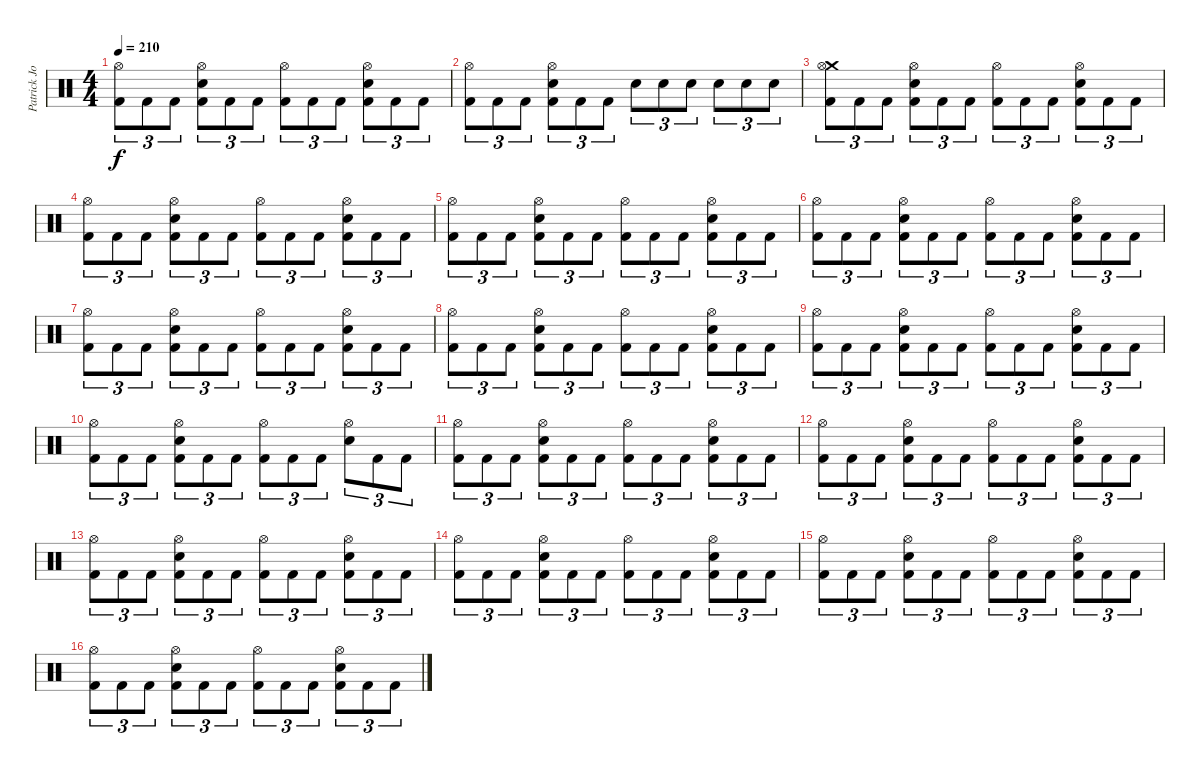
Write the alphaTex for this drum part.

\track ("Patrick Johansson" "Patrick Jo") {instrument percussion}
\staff {score}
\articulation defaults
\ts (4 4)
\tempo 210
\clef neutral
\ks c
("Hi-Hat (open)" "Kick (hit) 2").8{tu (3 2) dy f} "Kick (hit) 2".8{tu (3 2)} "Kick (hit) 2".8{tu (3 2)} ("Hi-Hat (open)" "Snare (hit) 2" "Kick (hit) 2").8{tu (3 2)} "Kick (hit) 2".8{tu (3 2)} "Kick (hit) 2".8{tu (3 2)} ("Hi-Hat (open)" "Kick (hit) 2").8{tu (3 2)} "Kick (hit) 2".8{tu (3 2)} "Kick (hit) 2".8{tu (3 2)} ("Hi-Hat (open)" "Snare (hit) 2" "Kick (hit) 2").8{tu (3 2)} "Kick (hit) 2".8{tu (3 2)} "Kick (hit) 2".8{tu (3 2)} |
("Hi-Hat (open)" "Kick (hit) 2").8{tu (3 2)} "Kick (hit) 2".8{tu (3 2)} "Kick (hit) 2".8{tu (3 2)} ("Hi-Hat (open)" "Snare (hit) 2" "Kick (hit) 2").8{tu (3 2)} "Kick (hit) 2".8{tu (3 2)} "Kick (hit) 2".8{tu (3 2)} "Snare (hit) 2".8{tu (3 2)} "Snare (hit) 2".8{tu (3 2)} "Snare (hit) 2".8{tu (3 2)} "Snare (hit) 2".8{tu (3 2)} "Snare (hit) 2".8{tu (3 2)} "Snare (hit) 2".8{tu (3 2)} |
("Crash medium (hit)" "Hi-Hat (open)" "Kick (hit) 2").8{tu (3 2)} "Kick (hit) 2".8{tu (3 2)} "Kick (hit) 2".8{tu (3 2)} ("Hi-Hat (open)" "Snare (hit) 2" "Kick (hit) 2").8{tu (3 2)} "Kick (hit) 2".8{tu (3 2)} "Kick (hit) 2".8{tu (3 2)} ("Hi-Hat (open)" "Kick (hit) 2").8{tu (3 2)} "Kick (hit) 2".8{tu (3 2)} "Kick (hit) 2".8{tu (3 2)} ("Hi-Hat (open)" "Snare (hit) 2" "Kick (hit) 2").8{tu (3 2)} "Kick (hit) 2".8{tu (3 2)} "Kick (hit) 2".8{tu (3 2)} |
("Hi-Hat (open)" "Kick (hit) 2").8{tu (3 2)} "Kick (hit) 2".8{tu (3 2)} "Kick (hit) 2".8{tu (3 2)} ("Hi-Hat (open)" "Snare (hit) 2" "Kick (hit) 2").8{tu (3 2)} "Kick (hit) 2".8{tu (3 2)} "Kick (hit) 2".8{tu (3 2)} ("Hi-Hat (open)" "Kick (hit) 2").8{tu (3 2)} "Kick (hit) 2".8{tu (3 2)} "Kick (hit) 2".8{tu (3 2)} ("Hi-Hat (open)" "Snare (hit) 2" "Kick (hit) 2").8{tu (3 2)} "Kick (hit) 2".8{tu (3 2)} "Kick (hit) 2".8{tu (3 2)} |
("Hi-Hat (open)" "Kick (hit) 2").8{tu (3 2)} "Kick (hit) 2".8{tu (3 2)} "Kick (hit) 2".8{tu (3 2)} ("Hi-Hat (open)" "Snare (hit) 2" "Kick (hit) 2").8{tu (3 2)} "Kick (hit) 2".8{tu (3 2)} "Kick (hit) 2".8{tu (3 2)} ("Hi-Hat (open)" "Kick (hit) 2").8{tu (3 2)} "Kick (hit) 2".8{tu (3 2)} "Kick (hit) 2".8{tu (3 2)} ("Hi-Hat (open)" "Snare (hit) 2" "Kick (hit) 2").8{tu (3 2)} "Kick (hit) 2".8{tu (3 2)} "Kick (hit) 2".8{tu (3 2)} |
("Hi-Hat (open)" "Kick (hit) 2").8{tu (3 2)} "Kick (hit) 2".8{tu (3 2)} "Kick (hit) 2".8{tu (3 2)} ("Hi-Hat (open)" "Snare (hit) 2" "Kick (hit) 2").8{tu (3 2)} "Kick (hit) 2".8{tu (3 2)} "Kick (hit) 2".8{tu (3 2)} ("Hi-Hat (open)" "Kick (hit) 2").8{tu (3 2)} "Kick (hit) 2".8{tu (3 2)} "Kick (hit) 2".8{tu (3 2)} ("Hi-Hat (open)" "Snare (hit) 2" "Kick (hit) 2").8{tu (3 2)} "Kick (hit) 2".8{tu (3 2)} "Kick (hit) 2".8{tu (3 2)} |
("Hi-Hat (open)" "Kick (hit) 2").8{tu (3 2)} "Kick (hit) 2".8{tu (3 2)} "Kick (hit) 2".8{tu (3 2)} ("Hi-Hat (open)" "Snare (hit) 2" "Kick (hit) 2").8{tu (3 2)} "Kick (hit) 2".8{tu (3 2)} "Kick (hit) 2".8{tu (3 2)} ("Hi-Hat (open)" "Kick (hit) 2").8{tu (3 2)} "Kick (hit) 2".8{tu (3 2)} "Kick (hit) 2".8{tu (3 2)} ("Hi-Hat (open)" "Snare (hit) 2" "Kick (hit) 2").8{tu (3 2)} "Kick (hit) 2".8{tu (3 2)} "Kick (hit) 2".8{tu (3 2)} |
("Hi-Hat (open)" "Kick (hit) 2").8{tu (3 2)} "Kick (hit) 2".8{tu (3 2)} "Kick (hit) 2".8{tu (3 2)} ("Hi-Hat (open)" "Snare (hit) 2" "Kick (hit) 2").8{tu (3 2)} "Kick (hit) 2".8{tu (3 2)} "Kick (hit) 2".8{tu (3 2)} ("Hi-Hat (open)" "Kick (hit) 2").8{tu (3 2)} "Kick (hit) 2".8{tu (3 2)} "Kick (hit) 2".8{tu (3 2)} ("Hi-Hat (open)" "Snare (hit) 2" "Kick (hit) 2").8{tu (3 2)} "Kick (hit) 2".8{tu (3 2)} "Kick (hit) 2".8{tu (3 2)} |
("Hi-Hat (open)" "Kick (hit) 2").8{tu (3 2)} "Kick (hit) 2".8{tu (3 2)} "Kick (hit) 2".8{tu (3 2)} ("Hi-Hat (open)" "Snare (hit) 2" "Kick (hit) 2").8{tu (3 2)} "Kick (hit) 2".8{tu (3 2)} "Kick (hit) 2".8{tu (3 2)} ("Hi-Hat (open)" "Kick (hit) 2").8{tu (3 2)} "Kick (hit) 2".8{tu (3 2)} "Kick (hit) 2".8{tu (3 2)} ("Hi-Hat (open)" "Snare (hit) 2" "Kick (hit) 2").8{tu (3 2)} "Kick (hit) 2".8{tu (3 2)} "Kick (hit) 2".8{tu (3 2)} |
("Hi-Hat (open)" "Kick (hit) 2").8{tu (3 2)} "Kick (hit) 2".8{tu (3 2)} "Kick (hit) 2".8{tu (3 2)} ("Hi-Hat (open)" "Snare (hit) 2" "Kick (hit) 2").8{tu (3 2)} "Kick (hit) 2".8{tu (3 2)} "Kick (hit) 2".8{tu (3 2)} ("Hi-Hat (open)" "Kick (hit) 2").8{tu (3 2)} "Kick (hit) 2".8{tu (3 2)} "Kick (hit) 2".8{tu (3 2)} ("Hi-Hat (open)" "Snare (hit) 2").8{tu (3 2)} "Kick (hit) 2".8{tu (3 2)} "Kick (hit) 2".8{tu (3 2)} |
("Hi-Hat (open)" "Kick (hit) 2").8{tu (3 2)} "Kick (hit) 2".8{tu (3 2)} "Kick (hit) 2".8{tu (3 2)} ("Hi-Hat (open)" "Snare (hit) 2" "Kick (hit) 2").8{tu (3 2)} "Kick (hit) 2".8{tu (3 2)} "Kick (hit) 2".8{tu (3 2)} ("Hi-Hat (open)" "Kick (hit) 2").8{tu (3 2)} "Kick (hit) 2".8{tu (3 2)} "Kick (hit) 2".8{tu (3 2)} ("Hi-Hat (open)" "Snare (hit) 2" "Kick (hit) 2").8{tu (3 2)} "Kick (hit) 2".8{tu (3 2)} "Kick (hit) 2".8{tu (3 2)} |
("Hi-Hat (open)" "Kick (hit) 2").8{tu (3 2)} "Kick (hit) 2".8{tu (3 2)} "Kick (hit) 2".8{tu (3 2)} ("Hi-Hat (open)" "Snare (hit) 2" "Kick (hit) 2").8{tu (3 2)} "Kick (hit) 2".8{tu (3 2)} "Kick (hit) 2".8{tu (3 2)} ("Hi-Hat (open)" "Kick (hit) 2").8{tu (3 2)} "Kick (hit) 2".8{tu (3 2)} "Kick (hit) 2".8{tu (3 2)} ("Hi-Hat (open)" "Snare (hit) 2" "Kick (hit) 2").8{tu (3 2)} "Kick (hit) 2".8{tu (3 2)} "Kick (hit) 2".8{tu (3 2)} |
("Hi-Hat (open)" "Kick (hit) 2").8{tu (3 2)} "Kick (hit) 2".8{tu (3 2)} "Kick (hit) 2".8{tu (3 2)} ("Hi-Hat (open)" "Snare (hit) 2" "Kick (hit) 2").8{tu (3 2)} "Kick (hit) 2".8{tu (3 2)} "Kick (hit) 2".8{tu (3 2)} ("Hi-Hat (open)" "Kick (hit) 2").8{tu (3 2)} "Kick (hit) 2".8{tu (3 2)} "Kick (hit) 2".8{tu (3 2)} ("Hi-Hat (open)" "Snare (hit) 2" "Kick (hit) 2").8{tu (3 2)} "Kick (hit) 2".8{tu (3 2)} "Kick (hit) 2".8{tu (3 2)} |
("Hi-Hat (open)" "Kick (hit) 2").8{tu (3 2)} "Kick (hit) 2".8{tu (3 2)} "Kick (hit) 2".8{tu (3 2)} ("Hi-Hat (open)" "Snare (hit) 2" "Kick (hit) 2").8{tu (3 2)} "Kick (hit) 2".8{tu (3 2)} "Kick (hit) 2".8{tu (3 2)} ("Hi-Hat (open)" "Kick (hit) 2").8{tu (3 2)} "Kick (hit) 2".8{tu (3 2)} "Kick (hit) 2".8{tu (3 2)} ("Hi-Hat (open)" "Snare (hit) 2" "Kick (hit) 2").8{tu (3 2)} "Kick (hit) 2".8{tu (3 2)} "Kick (hit) 2".8{tu (3 2)} |
("Hi-Hat (open)" "Kick (hit) 2").8{tu (3 2)} "Kick (hit) 2".8{tu (3 2)} "Kick (hit) 2".8{tu (3 2)} ("Hi-Hat (open)" "Snare (hit) 2" "Kick (hit) 2").8{tu (3 2)} "Kick (hit) 2".8{tu (3 2)} "Kick (hit) 2".8{tu (3 2)} ("Hi-Hat (open)" "Kick (hit) 2").8{tu (3 2)} "Kick (hit) 2".8{tu (3 2)} "Kick (hit) 2".8{tu (3 2)} ("Hi-Hat (open)" "Snare (hit) 2" "Kick (hit) 2").8{tu (3 2)} "Kick (hit) 2".8{tu (3 2)} "Kick (hit) 2".8{tu (3 2)} |
("Hi-Hat (open)" "Kick (hit) 2").8{tu (3 2)} "Kick (hit) 2".8{tu (3 2)} "Kick (hit) 2".8{tu (3 2)} ("Hi-Hat (open)" "Snare (hit) 2" "Kick (hit) 2").8{tu (3 2)} "Kick (hit) 2".8{tu (3 2)} "Kick (hit) 2".8{tu (3 2)} ("Hi-Hat (open)" "Kick (hit) 2").8{tu (3 2)} "Kick (hit) 2".8{tu (3 2)} "Kick (hit) 2".8{tu (3 2)} ("Hi-Hat (open)" "Snare (hit) 2" "Kick (hit) 2").8{tu (3 2)} "Kick (hit) 2".8{tu (3 2)} "Kick (hit) 2".8{tu (3 2)}
